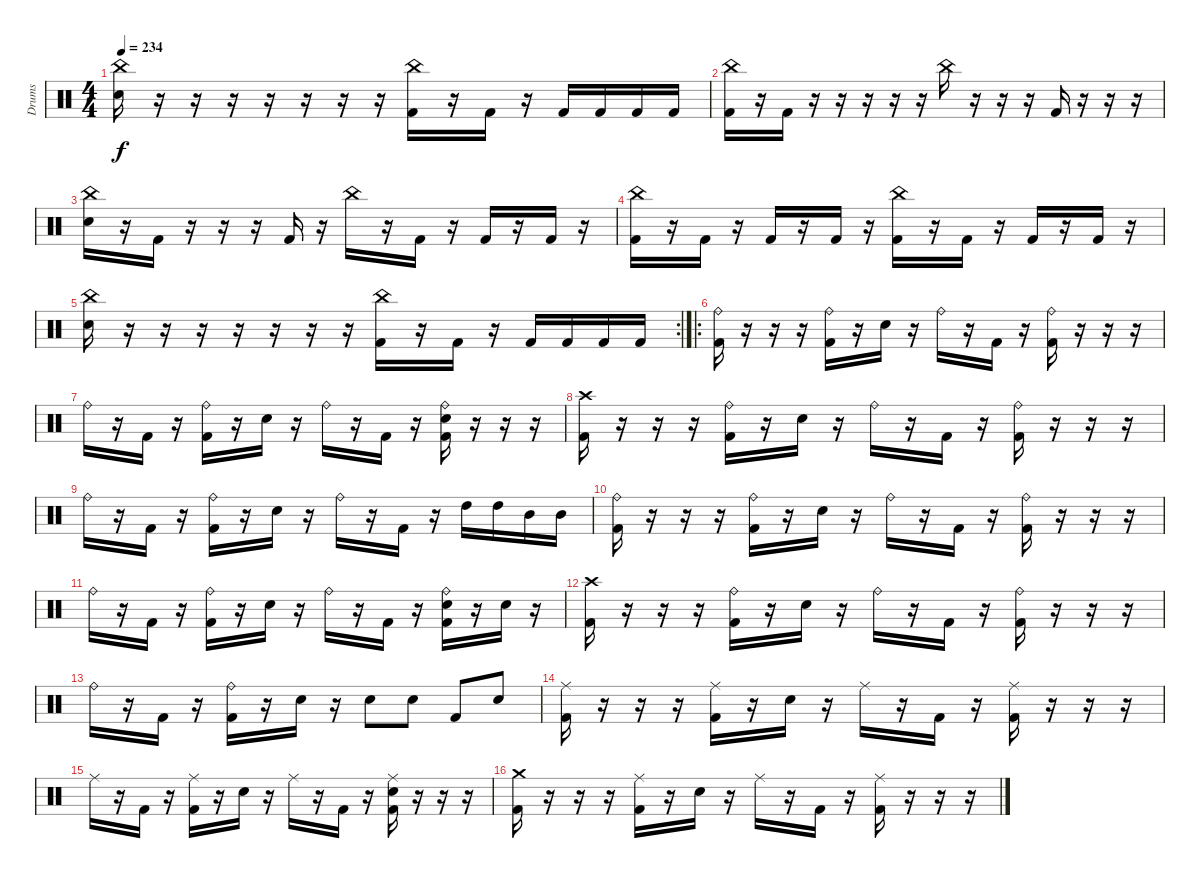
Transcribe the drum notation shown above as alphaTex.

\track ("Drums" "Drums") {instrument percussion}
\staff {score}
\articulation defaults
\ts (4 4)
\tempo 234
\clef neutral
\ks c
("China (hit)" "Electric Snare (hit)").16{dy f} r.16 r.16 r.16 r.16 r.16 r.16 r.16 ("China (hit)" "Kick (hit) 2").16 r.16 "Kick (hit) 2".16 r.16 "Kick (hit) 2".16 "Kick (hit) 2".16 "Kick (hit) 2".16 "Kick (hit) 2".16 |
("China (hit)" "Kick (hit) 2").16 r.16 "Kick (hit) 2".16 r.16 r.16 r.16 r.16 r.16 "China (hit)".16 r.16 r.16 r.16 "Kick (hit) 2".16 r.16 r.16 r.16 |
("China (hit)" "Electric Snare (hit)").16 r.16 "Kick (hit) 2".16 r.16 r.16 r.16 "Kick (hit) 2".16 r.16 "China (hit)".16 r.16 "Kick (hit) 2".16 r.16 "Kick (hit) 2".16 r.16 "Kick (hit) 2".16 r.16 |
("China (hit)" "Kick (hit) 2").16 r.16 "Kick (hit) 2".16 r.16 "Kick (hit) 2".16 r.16 "Kick (hit) 2".16 r.16 ("China (hit)" "Kick (hit) 2").16 r.16 "Kick (hit) 2".16 r.16 "Kick (hit) 2".16 r.16 "Kick (hit) 2".16 r.16 |
\rc 2
("China (hit)" "Electric Snare (hit)").16 r.16 r.16 r.16 r.16 r.16 r.16 r.16 ("China (hit)" "Kick (hit) 2").16 r.16 "Kick (hit) 2".16 r.16 "Kick (hit) 2".16 "Kick (hit) 2".16 "Kick (hit) 2".16 "Kick (hit) 2".16 |
\ro
("Ride (bell)" "Kick (hit) 2").16 r.16 r.16 r.16 ("Ride (bell)" "Kick (hit) 2").16 r.16 "Electric Snare (hit)".16 r.16 "Ride (bell)".16 r.16 "Kick (hit) 2".16 r.16 ("Ride (bell)" "Kick (hit) 2").16 r.16 r.16 r.16 |
"Ride (bell)".16 r.16 "Kick (hit) 2".16 r.16 ("Ride (bell)" "Kick (hit) 2").16 r.16 "Electric Snare (hit)".16 r.16 "Ride (bell)".16 r.16 "Kick (hit) 2".16 r.16 ("Ride (bell)" "Electric Snare (hit)" "Kick (hit) 2").16 r.16 r.16 r.16 |
("Crash high (hit)" "Kick (hit) 2").16 r.16 r.16 r.16 ("Ride (bell)" "Kick (hit) 2").16 r.16 "Electric Snare (hit)".16 r.16 "Ride (bell)".16 r.16 "Kick (hit) 2".16 r.16 ("Ride (bell)" "Kick (hit) 2").16 r.16 r.16 r.16 |
"Ride (bell)".16 r.16 "Kick (hit) 2".16 r.16 ("Ride (bell)" "Kick (hit) 2").16 r.16 "Electric Snare (hit)".16 r.16 "Ride (bell)".16 r.16 "Kick (hit) 2".16 r.16 "High Tom (hit)".16 "High Tom (hit)".16 "Mid Tom (hit)".16 "Mid Tom (hit)".16 |
("Ride (bell)" "Kick (hit) 2").16 r.16 r.16 r.16 ("Ride (bell)" "Kick (hit) 2").16 r.16 "Electric Snare (hit)".16 r.16 "Ride (bell)".16 r.16 "Kick (hit) 2".16 r.16 ("Ride (bell)" "Kick (hit) 2").16 r.16 r.16 r.16 |
"Ride (bell)".16 r.16 "Kick (hit) 2".16 r.16 ("Ride (bell)" "Kick (hit) 2").16 r.16 "Electric Snare (hit)".16 r.16 "Ride (bell)".16 r.16 "Kick (hit) 2".16 r.16 ("Ride (bell)" "Electric Snare (hit)" "Kick (hit) 2").16 r.16 "Electric Snare (hit)".16 r.16 |
("Crash high (hit)" "Kick (hit) 2").16 r.16 r.16 r.16 ("Ride (bell)" "Kick (hit) 2").16 r.16 "Electric Snare (hit)".16 r.16 "Ride (bell)".16 r.16 "Kick (hit) 2".16 r.16 ("Ride (bell)" "Kick (hit) 2").16 r.16 r.16 r.16 |
"Ride (bell)".16 r.16 "Kick (hit) 2".16 r.16 ("Ride (bell)" "Kick (hit) 2").16 r.16 "Electric Snare (hit)".16 r.16 "Electric Snare (hit)".8 "Electric Snare (hit)".8 "Kick (hit) 2".8 "Electric Snare (hit)".8 |
("Ride (middle)" "Kick (hit) 2").16 r.16 r.16 r.16 ("Ride (middle)" "Kick (hit) 2").16 r.16 "Electric Snare (hit)".16 r.16 "Ride (middle)".16 r.16 "Kick (hit) 2".16 r.16 ("Ride (middle)" "Kick (hit) 2").16 r.16 r.16 r.16 |
"Ride (middle)".16 r.16 "Kick (hit) 2".16 r.16 ("Ride (middle)" "Kick (hit) 2").16 r.16 "Electric Snare (hit)".16 r.16 "Ride (middle)".16 r.16 "Kick (hit) 2".16 r.16 ("Ride (middle)" "Electric Snare (hit)" "Kick (hit) 2").16 r.16 r.16 r.16 |
("Crash medium (hit)" "Kick (hit) 2").16 r.16 r.16 r.16 ("Ride (middle)" "Kick (hit) 2").16 r.16 "Electric Snare (hit)".16 r.16 "Ride (middle)".16 r.16 "Kick (hit) 2".16 r.16 ("Ride (middle)" "Kick (hit) 2").16 r.16 r.16 r.16
